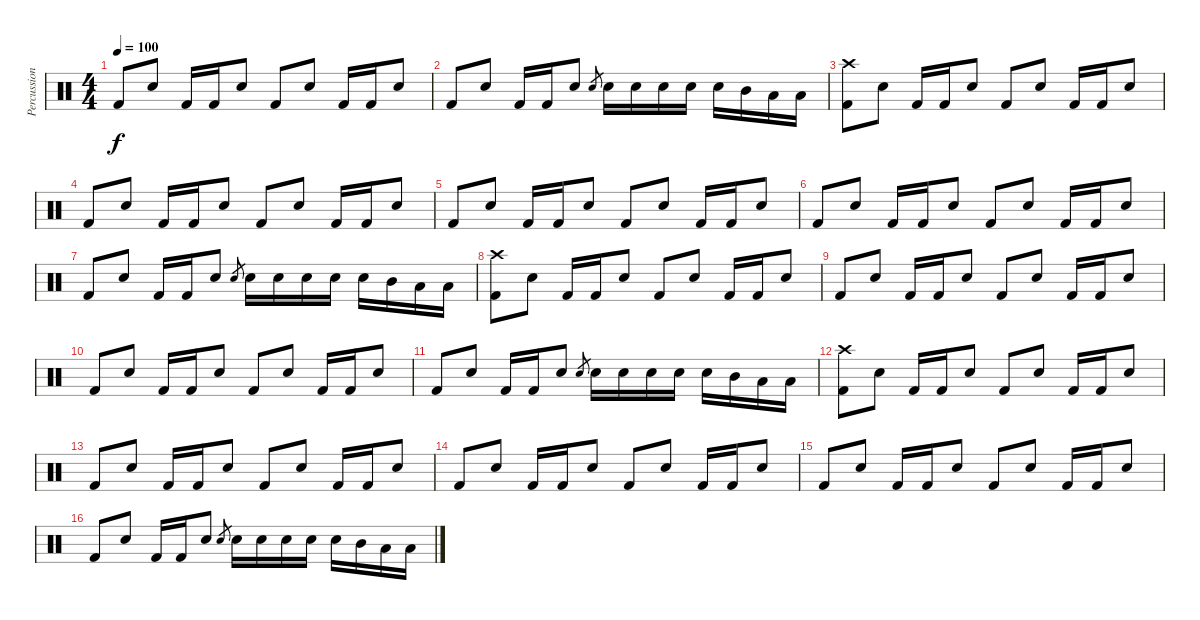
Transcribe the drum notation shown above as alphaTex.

\track ("Percussions" "Percussion") {instrument percussion}
\staff {score}
\articulation defaults
\ts (4 4)
\tempo 100
\clef neutral
\ks c "Kick (hit) 2".8{dy f} "Snare (hit) 2".8 "Kick (hit) 2".16 "Kick (hit) 2".16 "Snare (hit) 2".8 "Kick (hit) 2".8 "Snare (hit) 2".8 "Kick (hit) 2".16 "Kick (hit) 2".16 "Snare (hit) 2".8
|
"Kick (hit) 2".8 "Snare (hit) 2".8 "Kick (hit) 2".16 "Kick (hit) 2".16 "Snare (hit) 2".8 "Snare (hit) 2".8{gr} "Snare (hit) 2".16 "Snare (hit) 2".16 "Snare (hit) 2".16 "Snare (hit) 2".16 "Snare (hit) 2".16 "Mid Tom (hit)".16 "Low Tom (hit)".16 "Low Floor Tom (hit)".16 |
("Crash high (hit)" "Kick (hit) 2").8 "Snare (hit) 2".8 "Kick (hit) 2".16 "Kick (hit) 2".16 "Snare (hit) 2".8 "Kick (hit) 2".8 "Snare (hit) 2".8 "Kick (hit) 2".16 "Kick (hit) 2".16 "Snare (hit) 2".8 |
"Kick (hit) 2".8 "Snare (hit) 2".8 "Kick (hit) 2".16 "Kick (hit) 2".16 "Snare (hit) 2".8 "Kick (hit) 2".8 "Snare (hit) 2".8 "Kick (hit) 2".16 "Kick (hit) 2".16 "Snare (hit) 2".8 |
"Kick (hit) 2".8 "Snare (hit) 2".8 "Kick (hit) 2".16 "Kick (hit) 2".16 "Snare (hit) 2".8 "Kick (hit) 2".8 "Snare (hit) 2".8 "Kick (hit) 2".16 "Kick (hit) 2".16 "Snare (hit) 2".8 |
"Kick (hit) 2".8 "Snare (hit) 2".8 "Kick (hit) 2".16 "Kick (hit) 2".16 "Snare (hit) 2".8 "Kick (hit) 2".8 "Snare (hit) 2".8 "Kick (hit) 2".16 "Kick (hit) 2".16 "Snare (hit) 2".8 |
"Kick (hit) 2".8 "Snare (hit) 2".8 "Kick (hit) 2".16 "Kick (hit) 2".16 "Snare (hit) 2".8 "Snare (hit) 2".8{gr} "Snare (hit) 2".16 "Snare (hit) 2".16 "Snare (hit) 2".16 "Snare (hit) 2".16 "Snare (hit) 2".16 "Mid Tom (hit)".16 "Low Tom (hit)".16 "Low Floor Tom (hit)".16 |
("Crash high (hit)" "Kick (hit) 2").8 "Snare (hit) 2".8 "Kick (hit) 2".16 "Kick (hit) 2".16 "Snare (hit) 2".8 "Kick (hit) 2".8 "Snare (hit) 2".8 "Kick (hit) 2".16 "Kick (hit) 2".16 "Snare (hit) 2".8 |
"Kick (hit) 2".8 "Snare (hit) 2".8 "Kick (hit) 2".16 "Kick (hit) 2".16 "Snare (hit) 2".8 "Kick (hit) 2".8 "Snare (hit) 2".8 "Kick (hit) 2".16 "Kick (hit) 2".16 "Snare (hit) 2".8 |
"Kick (hit) 2".8 "Snare (hit) 2".8 "Kick (hit) 2".16 "Kick (hit) 2".16 "Snare (hit) 2".8 "Kick (hit) 2".8 "Snare (hit) 2".8 "Kick (hit) 2".16 "Kick (hit) 2".16 "Snare (hit) 2".8 |
"Kick (hit) 2".8 "Snare (hit) 2".8 "Kick (hit) 2".16 "Kick (hit) 2".16 "Snare (hit) 2".8 "Snare (hit) 2".8{gr} "Snare (hit) 2".16 "Snare (hit) 2".16 "Snare (hit) 2".16 "Snare (hit) 2".16 "Snare (hit) 2".16 "Mid Tom (hit)".16 "Low Tom (hit)".16 "Low Floor Tom (hit)".16 |
("Crash high (hit)" "Kick (hit) 2").8 "Snare (hit) 2".8 "Kick (hit) 2".16 "Kick (hit) 2".16 "Snare (hit) 2".8 "Kick (hit) 2".8 "Snare (hit) 2".8 "Kick (hit) 2".16 "Kick (hit) 2".16 "Snare (hit) 2".8 |
"Kick (hit) 2".8 "Snare (hit) 2".8 "Kick (hit) 2".16 "Kick (hit) 2".16 "Snare (hit) 2".8 "Kick (hit) 2".8 "Snare (hit) 2".8 "Kick (hit) 2".16 "Kick (hit) 2".16 "Snare (hit) 2".8 |
"Kick (hit) 2".8 "Snare (hit) 2".8 "Kick (hit) 2".16 "Kick (hit) 2".16 "Snare (hit) 2".8 "Kick (hit) 2".8 "Snare (hit) 2".8 "Kick (hit) 2".16 "Kick (hit) 2".16 "Snare (hit) 2".8 |
"Kick (hit) 2".8 "Snare (hit) 2".8 "Kick (hit) 2".16 "Kick (hit) 2".16 "Snare (hit) 2".8 "Kick (hit) 2".8 "Snare (hit) 2".8 "Kick (hit) 2".16 "Kick (hit) 2".16 "Snare (hit) 2".8 |
"Kick (hit) 2".8 "Snare (hit) 2".8 "Kick (hit) 2".16 "Kick (hit) 2".16 "Snare (hit) 2".8 "Snare (hit) 2".8{gr} "Snare (hit) 2".16 "Snare (hit) 2".16 "Snare (hit) 2".16 "Snare (hit) 2".16 "Snare (hit) 2".16 "Mid Tom (hit)".16 "Low Tom (hit)".16 "Low Floor Tom (hit)".16
